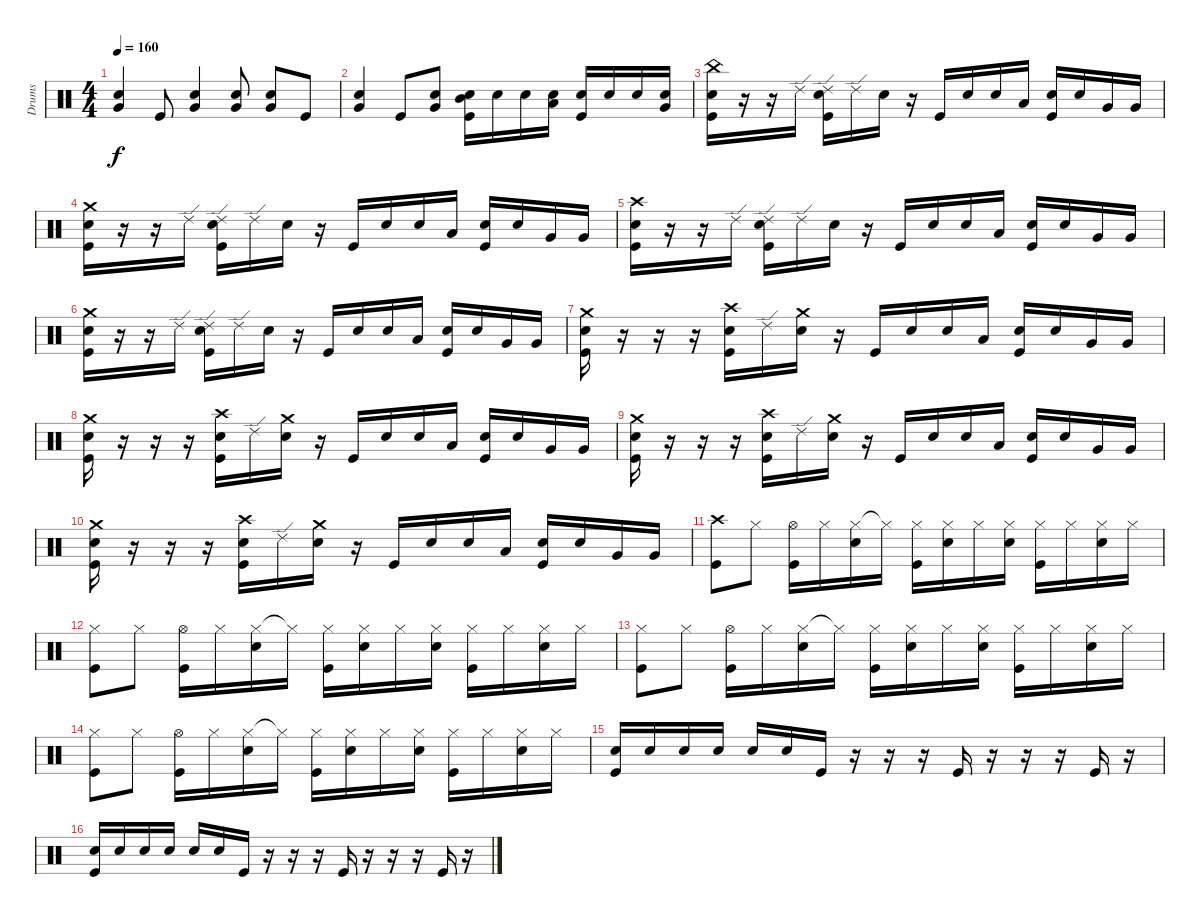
\track ("Drums" "Drums") {instrument percussion}
\staff {score}
\articulation defaults
\ts (4 4)
\tempo 160
\clef neutral
\ks c
("Electric Snare (hit)" "Very Low Tom (hit)").4{dy f} "Kick (hit)".8 ("Electric Snare (hit)" "Very Low Tom (hit)").4 ("Electric Snare (hit)" "Very Low Tom (hit)").8 ("Electric Snare (hit)" "Very Low Tom (hit)").8 "Kick (hit)".8 |
("Electric Snare (hit)" "Very Low Tom (hit)").4 "Kick (hit)".8 ("Electric Snare (hit)" "Very Low Tom (hit)").8 ("Mid Tom (hit)" "Electric Snare (hit)" "Kick (hit)").16 "Electric Snare (hit)".16 "Electric Snare (hit)".16 ("Low Tom (hit)" "Electric Snare (hit)").16 ("Electric Snare (hit)" "Kick (hit)").16 "Electric Snare (hit)".16 "Electric Snare (hit)".16 ("Very Low Tom (hit)" "Electric Snare (hit)").16 |
("China (hit)" "Electric Snare (hit)" "Kick (hit)").16 r.16 r.16 "Ride (edge) 2".16 ("Ride (edge) 2" "Electric Snare (hit)" "Kick (hit)").16 "Ride (edge) 2".16 "Electric Snare (hit)".16 r.16 "Kick (hit)".16 "Electric Snare (hit)".16 "Electric Snare (hit)".16 "Low Tom (hit)".16 ("Electric Snare (hit)" "Kick (hit)").16 "Electric Snare (hit)".16 "Very Low Tom (hit)".16 "Very Low Tom (hit)".16 |
("Crash medium (hit)" "Electric Snare (hit)" "Kick (hit)").16 r.16 r.16 "Ride (edge) 2".16 ("Ride (edge) 2" "Electric Snare (hit)" "Kick (hit)").16 "Ride (edge) 2".16 "Electric Snare (hit)".16 r.16 "Kick (hit)".16 "Electric Snare (hit)".16 "Electric Snare (hit)".16 "Low Tom (hit)".16 ("Electric Snare (hit)" "Kick (hit)").16 "Electric Snare (hit)".16 "Very Low Tom (hit)".16 "Very Low Tom (hit)".16 |
("Crash high (hit)" "Electric Snare (hit)" "Kick (hit)").16 r.16 r.16 "Ride (edge) 2".16 ("Ride (edge) 2" "Electric Snare (hit)" "Kick (hit)").16 "Ride (edge) 2".16 "Electric Snare (hit)".16 r.16 "Kick (hit)".16 "Electric Snare (hit)".16 "Electric Snare (hit)".16 "Low Tom (hit)".16 ("Electric Snare (hit)" "Kick (hit)").16 "Electric Snare (hit)".16 "Very Low Tom (hit)".16 "Very Low Tom (hit)".16 |
("Crash medium (hit)" "Electric Snare (hit)" "Kick (hit)").16 r.16 r.16 "Ride (edge) 2".16 ("Ride (edge) 2" "Electric Snare (hit)" "Kick (hit)").16 "Ride (edge) 2".16 "Electric Snare (hit)".16 r.16 "Kick (hit)".16 "Electric Snare (hit)".16 "Electric Snare (hit)".16 "Low Tom (hit)".16 ("Electric Snare (hit)" "Kick (hit)").16 "Electric Snare (hit)".16 "Very Low Tom (hit)".16 "Very Low Tom (hit)".16 |
("Crash medium (hit)" "Electric Snare (hit)" "Kick (hit)").16 r.16 r.16 r.16 ("Crash high (hit)" "Electric Snare (hit)" "Kick (hit)").16 "Ride (edge) 2".16 ("Crash medium (hit)" "Electric Snare (hit)").16 r.16 "Kick (hit)".16 "Electric Snare (hit)".16 "Electric Snare (hit)".16 "Low Tom (hit)".16 ("Electric Snare (hit)" "Kick (hit)").16 "Electric Snare (hit)".16 "Very Low Tom (hit)".16 "Very Low Tom (hit)".16 |
("Crash medium (hit)" "Electric Snare (hit)" "Kick (hit)").16 r.16 r.16 r.16 ("Crash high (hit)" "Electric Snare (hit)" "Kick (hit)").16 "Ride (edge) 2".16 ("Crash medium (hit)" "Electric Snare (hit)").16 r.16 "Kick (hit)".16 "Electric Snare (hit)".16 "Electric Snare (hit)".16 "Low Tom (hit)".16 ("Electric Snare (hit)" "Kick (hit)").16 "Electric Snare (hit)".16 "Very Low Tom (hit)".16 "Very Low Tom (hit)".16 |
("Crash medium (hit)" "Electric Snare (hit)" "Kick (hit)").16 r.16 r.16 r.16 ("Crash high (hit)" "Electric Snare (hit)" "Kick (hit)").16 "Ride (edge) 2".16 ("Crash medium (hit)" "Electric Snare (hit)").16 r.16 "Kick (hit)".16 "Electric Snare (hit)".16 "Electric Snare (hit)".16 "Low Tom (hit)".16 ("Electric Snare (hit)" "Kick (hit)").16 "Electric Snare (hit)".16 "Very Low Tom (hit)".16 "Very Low Tom (hit)".16 |
("Crash medium (hit)" "Electric Snare (hit)" "Kick (hit)").16 r.16 r.16 r.16 ("Crash high (hit)" "Electric Snare (hit)" "Kick (hit)").16 "Ride (edge) 2".16 ("Crash medium (hit)" "Electric Snare (hit)").16 r.16 "Kick (hit)".16 "Electric Snare (hit)".16 "Electric Snare (hit)".16 "Low Tom (hit)".16 ("Electric Snare (hit)" "Kick (hit)").16 "Electric Snare (hit)".16 "Very Low Tom (hit)".16 "Very Low Tom (hit)".16 |
("Crash high (hit)" "Kick (hit)").8 "Hi-Hat (closed)".8 ("Hi-Hat (open)" "Kick (hit)").16 "Hi-Hat (closed)".16 ("Hi-Hat (closed)" "Electric Snare (hit)").16 "Hi-Hat (closed)"{t}.16 ("Hi-Hat (closed)" "Kick (hit)").16 ("Hi-Hat (closed)" "Electric Snare (hit)").16 "Hi-Hat (closed)".16 ("Hi-Hat (closed)" "Electric Snare (hit)").16 ("Hi-Hat (closed)" "Kick (hit)").16 "Hi-Hat (closed)".16 ("Hi-Hat (closed)" "Electric Snare (hit)").16 "Hi-Hat (closed)".16 |
("Hi-Hat (closed)" "Kick (hit)").8 "Hi-Hat (closed)".8 ("Hi-Hat (open)" "Kick (hit)").16 "Hi-Hat (closed)".16 ("Hi-Hat (closed)" "Electric Snare (hit)").16 "Hi-Hat (closed)"{t}.16 ("Hi-Hat (closed)" "Kick (hit)").16 ("Hi-Hat (closed)" "Electric Snare (hit)").16 "Hi-Hat (closed)".16 ("Hi-Hat (closed)" "Electric Snare (hit)").16 ("Hi-Hat (closed)" "Kick (hit)").16 "Hi-Hat (closed)".16 ("Hi-Hat (closed)" "Electric Snare (hit)").16 "Hi-Hat (closed)".16 |
("Hi-Hat (closed)" "Kick (hit)").8 "Hi-Hat (closed)".8 ("Hi-Hat (open)" "Kick (hit)").16 "Hi-Hat (closed)".16 ("Hi-Hat (closed)" "Electric Snare (hit)").16 "Hi-Hat (closed)"{t}.16 ("Hi-Hat (closed)" "Kick (hit)").16 ("Hi-Hat (closed)" "Electric Snare (hit)").16 "Hi-Hat (closed)".16 ("Hi-Hat (closed)" "Electric Snare (hit)").16 ("Hi-Hat (closed)" "Kick (hit)").16 "Hi-Hat (closed)".16 ("Hi-Hat (closed)" "Electric Snare (hit)").16 "Hi-Hat (closed)".16 |
("Hi-Hat (closed)" "Kick (hit)").8 "Hi-Hat (closed)".8 ("Hi-Hat (open)" "Kick (hit)").16 "Hi-Hat (closed)".16 ("Hi-Hat (closed)" "Electric Snare (hit)").16 "Hi-Hat (closed)"{t}.16 ("Hi-Hat (closed)" "Kick (hit)").16 ("Hi-Hat (closed)" "Electric Snare (hit)").16 "Hi-Hat (closed)".16 ("Hi-Hat (closed)" "Electric Snare (hit)").16 ("Hi-Hat (closed)" "Kick (hit)").16 "Hi-Hat (closed)".16 ("Hi-Hat (closed)" "Electric Snare (hit)").16 "Hi-Hat (closed)".16 |
("Electric Snare (hit)" "Kick (hit)").16 "Electric Snare (hit)".16 "Electric Snare (hit)".16 "Electric Snare (hit)".16 "Electric Snare (hit)".16 "Electric Snare (hit)".16 "Kick (hit)".16 r.16 r.16 r.16 "Kick (hit)".16 r.16 r.16 r.16 "Kick (hit)".16 r.16 |
("Electric Snare (hit)" "Kick (hit)").16 "Electric Snare (hit)".16 "Electric Snare (hit)".16 "Electric Snare (hit)".16 "Electric Snare (hit)".16 "Electric Snare (hit)".16 "Kick (hit)".16 r.16 r.16 r.16 "Kick (hit)".16 r.16 r.16 r.16 "Kick (hit)".16 r.16
